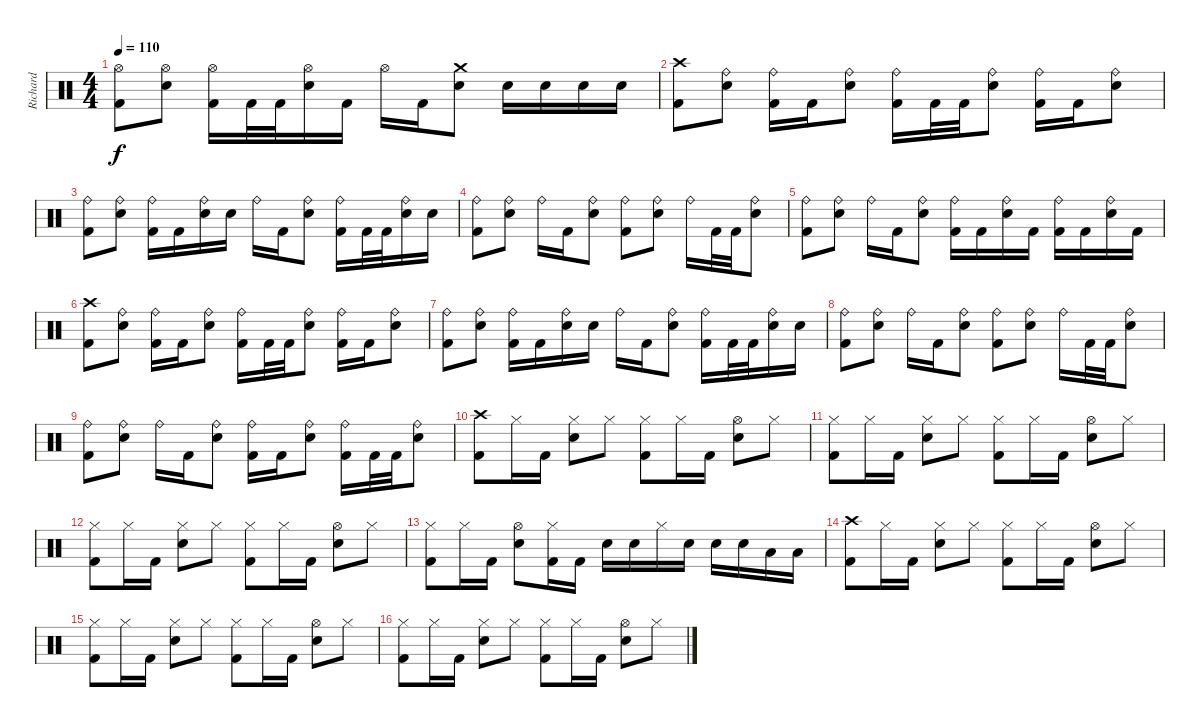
\track ("Richard" "Richard") {instrument percussion}
\staff {score}
\articulation defaults
\ts (4 4)
\tempo 110
\clef neutral
\ks c
("Hi-Hat (open)" "Kick (hit) 2").8{dy f} ("Hi-Hat (open)" "Snare (hit) 2").8 ("Hi-Hat (open)" "Kick (hit) 2").16 "Kick (hit) 2".32 "Kick (hit) 2".32 ("Hi-Hat (open)" "Snare (hit) 2").16 "Kick (hit) 2".16 "Hi-Hat (open)".16 "Kick (hit) 2".16 ("Crash medium (hit)" "Snare (hit) 2").8 "Snare (hit) 2".16 "Snare (hit) 2".16 "Snare (hit) 2".16 "Snare (hit) 2".16 |
("Crash high (hit)" "Kick (hit) 2").8 ("Ride (bell)" "Snare (hit) 2").8 ("Ride (bell)" "Kick (hit) 2").16 "Kick (hit) 2".16 ("Ride (bell)" "Snare (hit) 2").8 ("Ride (bell)" "Kick (hit) 2").16 "Kick (hit) 2".32 "Kick (hit) 2".32 ("Ride (bell)" "Snare (hit) 2").8 ("Ride (bell)" "Kick (hit) 2").16 "Kick (hit) 2".16 ("Ride (bell)" "Snare (hit) 2").8 |
("Ride (bell)" "Kick (hit) 2").8 ("Ride (bell)" "Snare (hit) 2").8 ("Ride (bell)" "Kick (hit) 2").16 "Kick (hit) 2".16 ("Ride (bell)" "Snare (hit) 2").16 "Snare (hit) 2".16 "Ride (bell)".16 "Kick (hit) 2".16 ("Ride (bell)" "Snare (hit) 2").8 ("Ride (bell)" "Kick (hit) 2").16 "Kick (hit) 2".32 "Kick (hit) 2".32 ("Ride (bell)" "Snare (hit) 2").16 "Snare (hit) 2".16 |
("Ride (bell)" "Kick (hit) 2").8 ("Ride (bell)" "Snare (hit) 2").8 "Ride (bell)".16 "Kick (hit) 2".16 ("Ride (bell)" "Snare (hit) 2").8 ("Ride (bell)" "Kick (hit) 2").8 ("Ride (bell)" "Snare (hit) 2").8 "Ride (bell)".16 "Kick (hit) 2".32 "Kick (hit) 2".32 ("Ride (bell)" "Snare (hit) 2").8 |
("Ride (bell)" "Kick (hit) 2").8 ("Ride (bell)" "Snare (hit) 2").8 "Ride (bell)".16 "Kick (hit) 2".16 ("Ride (bell)" "Snare (hit) 2").8 ("Ride (bell)" "Kick (hit) 2").16 "Kick (hit) 2".16 ("Ride (bell)" "Snare (hit) 2").16 "Kick (hit) 2".16 ("Ride (bell)" "Kick (hit) 2").16 "Kick (hit) 2".16 ("Ride (bell)" "Snare (hit) 2").16 "Kick (hit) 2".16 |
("Crash high (hit)" "Kick (hit) 2").8 ("Ride (bell)" "Snare (hit) 2").8 ("Ride (bell)" "Kick (hit) 2").16 "Kick (hit) 2".16 ("Ride (bell)" "Snare (hit) 2").8 ("Ride (bell)" "Kick (hit) 2").16 "Kick (hit) 2".32 "Kick (hit) 2".32 ("Ride (bell)" "Snare (hit) 2").8 ("Ride (bell)" "Kick (hit) 2").16 "Kick (hit) 2".16 ("Ride (bell)" "Snare (hit) 2").8 |
("Ride (bell)" "Kick (hit) 2").8 ("Ride (bell)" "Snare (hit) 2").8 ("Ride (bell)" "Kick (hit) 2").16 "Kick (hit) 2".16 ("Ride (bell)" "Snare (hit) 2").16 "Snare (hit) 2".16 "Ride (bell)".16 "Kick (hit) 2".16 ("Ride (bell)" "Snare (hit) 2").8 ("Ride (bell)" "Kick (hit) 2").16 "Kick (hit) 2".32 "Kick (hit) 2".32 ("Ride (bell)" "Snare (hit) 2").16 "Snare (hit) 2".16 |
("Ride (bell)" "Kick (hit) 2").8 ("Ride (bell)" "Snare (hit) 2").8 "Ride (bell)".16 "Kick (hit) 2".16 ("Ride (bell)" "Snare (hit) 2").8 ("Ride (bell)" "Kick (hit) 2").8 ("Ride (bell)" "Snare (hit) 2").8 "Ride (bell)".16 "Kick (hit) 2".32 "Kick (hit) 2".32 ("Ride (bell)" "Snare (hit) 2").8 |
("Ride (bell)" "Kick (hit) 2").8 ("Ride (bell)" "Snare (hit) 2").8 "Ride (bell)".16 "Kick (hit) 2".16 ("Ride (bell)" "Snare (hit) 2").8 ("Ride (bell)" "Kick (hit) 2").16 "Kick (hit) 2".16 ("Ride (bell)" "Snare (hit) 2").8 ("Ride (bell)" "Kick (hit) 2").16 "Kick (hit) 2".32 "Kick (hit) 2".32 ("Ride (bell)" "Snare (hit) 2").8 |
("Crash high (hit)" "Kick (hit) 2").8 "Hi-Hat (closed)".16 "Kick (hit) 2".16 ("Hi-Hat (closed)" "Snare (hit) 2").8 "Hi-Hat (closed)".8 ("Hi-Hat (closed)" "Kick (hit) 2").8 "Hi-Hat (closed)".16 "Kick (hit) 2".16 ("Hi-Hat (open)" "Snare (hit) 2").8 "Hi-Hat (closed)".8 |
("Hi-Hat (closed)" "Kick (hit) 2").8 "Hi-Hat (closed)".16 "Kick (hit) 2".16 ("Hi-Hat (closed)" "Snare (hit) 2").8 "Hi-Hat (closed)".8 ("Hi-Hat (closed)" "Kick (hit) 2").8 "Hi-Hat (closed)".16 "Kick (hit) 2".16 ("Hi-Hat (open)" "Snare (hit) 2").8 "Hi-Hat (closed)".8 |
("Hi-Hat (closed)" "Kick (hit) 2").8 "Hi-Hat (closed)".16 "Kick (hit) 2".16 ("Hi-Hat (closed)" "Snare (hit) 2").8 "Hi-Hat (closed)".8 ("Hi-Hat (closed)" "Kick (hit) 2").8 "Hi-Hat (closed)".16 "Kick (hit) 2".16 ("Hi-Hat (open)" "Snare (hit) 2").8 "Hi-Hat (closed)".8 |
("Hi-Hat (closed)" "Kick (hit) 2").8 "Hi-Hat (closed)".16 "Kick (hit) 2".16 ("Hi-Hat (open)" "Snare (hit) 2").8 ("Hi-Hat (closed)" "Kick (hit) 2").16 "Kick (hit) 2".16 "Snare (hit) 2".16 "Snare (hit) 2".16 "Hi-Hat (closed)".16 "Snare (hit) 2".16 "Snare (hit) 2".16 "Snare (hit) 2".16 "Low Tom (hit)".16 "Low Tom (hit)".16 |
("Crash high (hit)" "Kick (hit) 2").8 "Hi-Hat (closed)".16 "Kick (hit) 2".16 ("Hi-Hat (closed)" "Snare (hit) 2").8 "Hi-Hat (closed)".8 ("Hi-Hat (closed)" "Kick (hit) 2").8 "Hi-Hat (closed)".16 "Kick (hit) 2".16 ("Hi-Hat (open)" "Snare (hit) 2").8 "Hi-Hat (closed)".8 |
("Hi-Hat (closed)" "Kick (hit) 2").8 "Hi-Hat (closed)".16 "Kick (hit) 2".16 ("Hi-Hat (closed)" "Snare (hit) 2").8 "Hi-Hat (closed)".8 ("Hi-Hat (closed)" "Kick (hit) 2").8 "Hi-Hat (closed)".16 "Kick (hit) 2".16 ("Hi-Hat (open)" "Snare (hit) 2").8 "Hi-Hat (closed)".8 |
("Hi-Hat (closed)" "Kick (hit) 2").8 "Hi-Hat (closed)".16 "Kick (hit) 2".16 ("Hi-Hat (closed)" "Snare (hit) 2").8 "Hi-Hat (closed)".8 ("Hi-Hat (closed)" "Kick (hit) 2").8 "Hi-Hat (closed)".16 "Kick (hit) 2".16 ("Hi-Hat (open)" "Snare (hit) 2").8 "Hi-Hat (closed)".8
